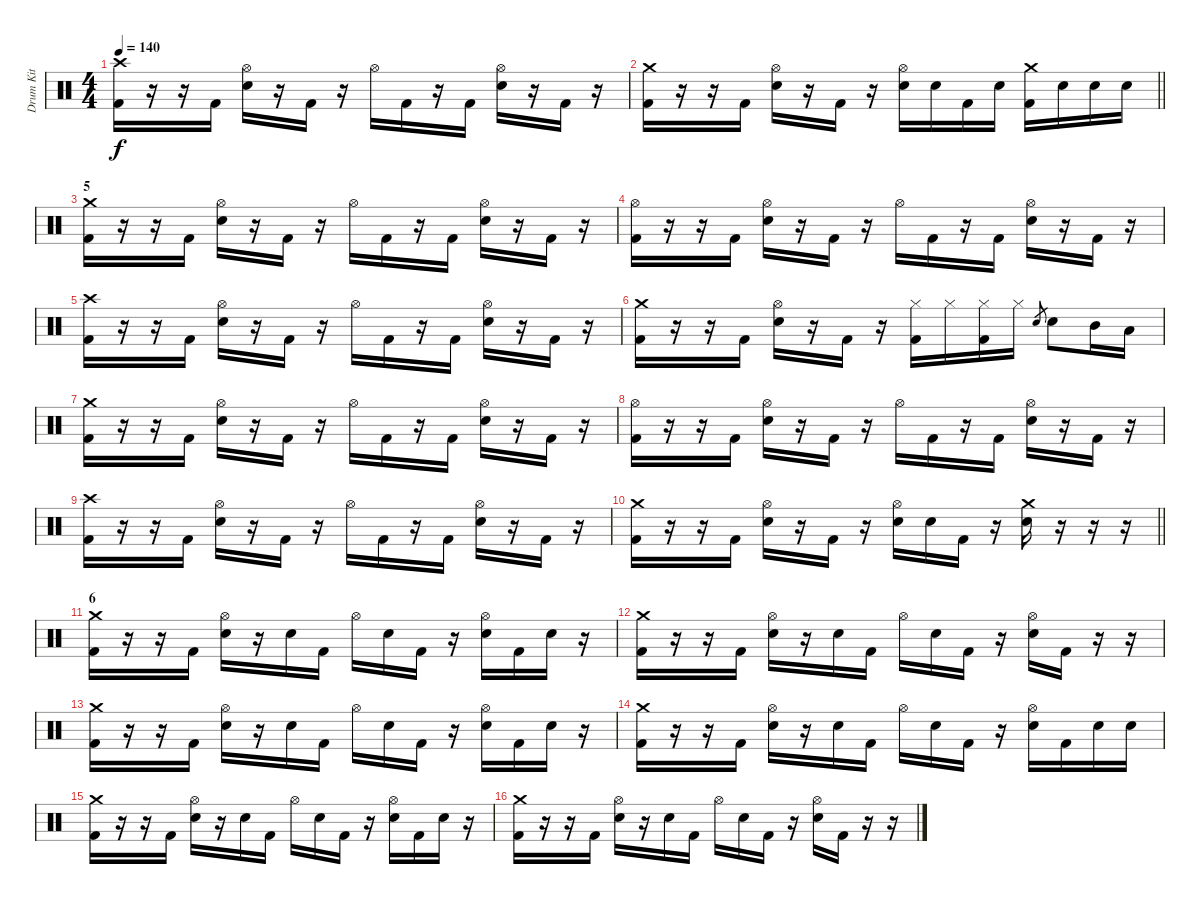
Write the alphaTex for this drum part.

\track ("Drum Kit" "Drum Kit") {instrument percussion}
\staff {score}
\articulation defaults
\ts (4 4)
\tempo 140
\clef neutral
\ks c
("Crash high (hit)" "Kick (hit) 2").16{dy f} r.16 r.16 "Kick (hit) 2".16 ("Hi-Hat (open)" "Electric Snare (hit)").16 r.16 "Kick (hit) 2".16 r.16 "Hi-Hat (open)".16 "Kick (hit) 2".16 r.16 "Kick (hit) 2".16 ("Hi-Hat (open)" "Electric Snare (hit)").16 r.16 "Kick (hit) 2".16 r.16 |
\barLineRight lightlight
("Crash medium (hit)" "Kick (hit) 2").16 r.16 r.16 "Kick (hit) 2".16 ("Hi-Hat (open)" "Electric Snare (hit)").16 r.16 "Kick (hit) 2".16 r.16 ("Hi-Hat (open)" "Electric Snare (hit)").16 "Electric Snare (hit)".16 "Kick (hit) 2".16 "Electric Snare (hit)".16 ("Crash medium (hit)" "Kick (hit) 2").16 "Electric Snare (hit)".16 "Electric Snare (hit)".16 "Electric Snare (hit)".16 |
\section ("" "5")
("Crash medium (hit)" "Kick (hit) 2").16 r.16 r.16 "Kick (hit) 2".16 ("Hi-Hat (open)" "Electric Snare (hit)").16 r.16 "Kick (hit) 2".16 r.16 "Hi-Hat (open)".16 "Kick (hit) 2".16 r.16 "Kick (hit) 2".16 ("Hi-Hat (open)" "Electric Snare (hit)").16 r.16 "Kick (hit) 2".16 r.16 |
("Hi-Hat (open)" "Kick (hit) 2").16 r.16 r.16 "Kick (hit) 2".16 ("Hi-Hat (open)" "Electric Snare (hit)").16 r.16 "Kick (hit) 2".16 r.16 "Hi-Hat (open)".16 "Kick (hit) 2".16 r.16 "Kick (hit) 2".16 ("Hi-Hat (open)" "Electric Snare (hit)").16 r.16 "Kick (hit) 2".16 r.16 |
("Crash high (hit)" "Kick (hit) 2").16 r.16 r.16 "Kick (hit) 2".16 ("Hi-Hat (open)" "Electric Snare (hit)").16 r.16 "Kick (hit) 2".16 r.16 "Hi-Hat (open)".16 "Kick (hit) 2".16 r.16 "Kick (hit) 2".16 ("Hi-Hat (open)" "Electric Snare (hit)").16 r.16 "Kick (hit) 2".16 r.16 |
("Crash medium (hit)" "Kick (hit) 2").16 r.16 r.16 "Kick (hit) 2".16 ("Hi-Hat (open)" "Electric Snare (hit)").16 r.16 "Kick (hit) 2".16 r.16 ("Hi-Hat (closed)" "Kick (hit) 2").16 "Hi-Hat (closed)".16 ("Hi-Hat (closed)" "Kick (hit) 2").16 "Hi-Hat (closed)".16 "Electric Snare (hit)".8{gr} "Electric Snare (hit)".8 "Mid Tom (hit)".16 "Low Tom (hit)".16 |
("Crash medium (hit)" "Kick (hit) 2").16 r.16 r.16 "Kick (hit) 2".16 ("Hi-Hat (open)" "Electric Snare (hit)").16 r.16 "Kick (hit) 2".16 r.16 "Hi-Hat (open)".16 "Kick (hit) 2".16 r.16 "Kick (hit) 2".16 ("Hi-Hat (open)" "Electric Snare (hit)").16 r.16 "Kick (hit) 2".16 r.16 |
("Hi-Hat (open)" "Kick (hit) 2").16 r.16 r.16 "Kick (hit) 2".16 ("Hi-Hat (open)" "Electric Snare (hit)").16 r.16 "Kick (hit) 2".16 r.16 "Hi-Hat (open)".16 "Kick (hit) 2".16 r.16 "Kick (hit) 2".16 ("Hi-Hat (open)" "Electric Snare (hit)").16 r.16 "Kick (hit) 2".16 r.16 |
("Crash high (hit)" "Kick (hit) 2").16 r.16 r.16 "Kick (hit) 2".16 ("Hi-Hat (open)" "Electric Snare (hit)").16 r.16 "Kick (hit) 2".16 r.16 "Hi-Hat (open)".16 "Kick (hit) 2".16 r.16 "Kick (hit) 2".16 ("Hi-Hat (open)" "Electric Snare (hit)").16 r.16 "Kick (hit) 2".16 r.16 |
\barLineRight lightlight
("Crash medium (hit)" "Kick (hit) 2").16 r.16 r.16 "Kick (hit) 2".16 ("Hi-Hat (open)" "Electric Snare (hit)").16 r.16 "Kick (hit) 2".16 r.16 ("Hi-Hat (open)" "Electric Snare (hit)").16 "Electric Snare (hit)".16 "Kick (hit) 2".16 r.16 ("Crash medium (hit)" "Electric Snare (hit)").16 r.16 r.16 r.16 |
\section ("" "6")
("Crash medium (hit)" "Kick (hit) 2").16 r.16 r.16 "Kick (hit) 2".16 ("Hi-Hat (open)" "Electric Snare (hit)").16 r.16 "Electric Snare (hit)".16 "Kick (hit) 2".16 "Hi-Hat (open)".16 "Electric Snare (hit)".16 "Kick (hit) 2".16 r.16 ("Hi-Hat (open)" "Electric Snare (hit)").16 "Kick (hit) 2".16 "Electric Snare (hit)".16 r.16 |
("Crash medium (hit)" "Kick (hit) 2").16 r.16 r.16 "Kick (hit) 2".16 ("Hi-Hat (open)" "Electric Snare (hit)").16 r.16 "Electric Snare (hit)".16 "Kick (hit) 2".16 "Hi-Hat (open)".16 "Electric Snare (hit)".16 "Kick (hit) 2".16 r.16 ("Hi-Hat (open)" "Electric Snare (hit)").16 "Kick (hit) 2".16 r.16 r.16 |
("Crash medium (hit)" "Kick (hit) 2").16 r.16 r.16 "Kick (hit) 2".16 ("Hi-Hat (open)" "Electric Snare (hit)").16 r.16 "Electric Snare (hit)".16 "Kick (hit) 2".16 "Hi-Hat (open)".16 "Electric Snare (hit)".16 "Kick (hit) 2".16 r.16 ("Hi-Hat (open)" "Electric Snare (hit)").16 "Kick (hit) 2".16 "Electric Snare (hit)".16 r.16 |
("Crash medium (hit)" "Kick (hit) 2").16 r.16 r.16 "Kick (hit) 2".16 ("Hi-Hat (open)" "Electric Snare (hit)").16 r.16 "Electric Snare (hit)".16 "Kick (hit) 2".16 "Hi-Hat (open)".16 "Electric Snare (hit)".16 "Kick (hit) 2".16 r.16 ("Hi-Hat (open)" "Electric Snare (hit)").16 "Kick (hit) 2".16 "Electric Snare (hit)".16 "Electric Snare (hit)".16 |
("Crash medium (hit)" "Kick (hit) 2").16 r.16 r.16 "Kick (hit) 2".16 ("Hi-Hat (open)" "Electric Snare (hit)").16 r.16 "Electric Snare (hit)".16 "Kick (hit) 2".16 "Hi-Hat (open)".16 "Electric Snare (hit)".16 "Kick (hit) 2".16 r.16 ("Hi-Hat (open)" "Electric Snare (hit)").16 "Kick (hit) 2".16 "Electric Snare (hit)".16 r.16 |
("Crash medium (hit)" "Kick (hit) 2").16 r.16 r.16 "Kick (hit) 2".16 ("Hi-Hat (open)" "Electric Snare (hit)").16 r.16 "Electric Snare (hit)".16 "Kick (hit) 2".16 "Hi-Hat (open)".16 "Electric Snare (hit)".16 "Kick (hit) 2".16 r.16 ("Hi-Hat (open)" "Electric Snare (hit)").16 "Kick (hit) 2".16 r.16 r.16
